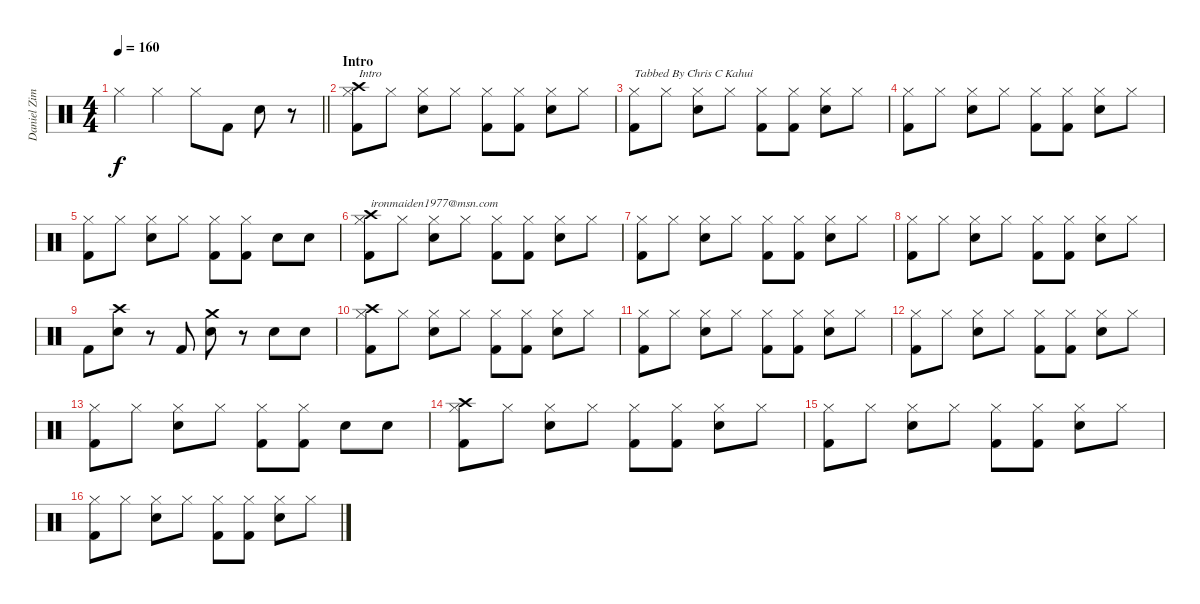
\track ("Daniel Zimmermann" "Daniel Zim") {instrument percussion}
\staff {score}
\articulation defaults
\ts (4 4)
\tempo 160
\clef neutral
\barLineRight lightlight
\ks c "Hi-Hat (closed)".4{dy f} "Hi-Hat (closed)".4 "Hi-Hat (closed)".8 "Kick (hit) 2".8 "Snare (hit) 2".8
r.8 |
\section ("" "Intro")
("Hi-Hat (closed)" "Kick (hit) 2" "Crash high (hit)").8{txt "Intro"} "Hi-Hat (closed)".8 ("Hi-Hat (closed)" "Snare (hit) 2").8 "Hi-Hat (closed)".8 ("Hi-Hat (closed)" "Kick (hit) 2").8 ("Hi-Hat (closed)" "Kick (hit) 2").8 ("Hi-Hat (closed)" "Snare (hit) 2").8 "Hi-Hat (closed)".8 |
("Hi-Hat (closed)" "Kick (hit) 2").8{txt "Tabbed By Chris C Kahui"} "Hi-Hat (closed)".8 ("Hi-Hat (closed)" "Snare (hit) 2").8 "Hi-Hat (closed)".8 ("Hi-Hat (closed)" "Kick (hit) 2").8 ("Hi-Hat (closed)" "Kick (hit) 2").8 ("Hi-Hat (closed)" "Snare (hit) 2").8 "Hi-Hat (closed)".8 |
("Hi-Hat (closed)" "Kick (hit) 2").8 "Hi-Hat (closed)".8 ("Hi-Hat (closed)" "Snare (hit) 2").8 "Hi-Hat (closed)".8 ("Hi-Hat (closed)" "Kick (hit) 2").8 ("Hi-Hat (closed)" "Kick (hit) 2").8 ("Hi-Hat (closed)" "Snare (hit) 2").8 "Hi-Hat (closed)".8 |
("Hi-Hat (closed)" "Kick (hit) 2").8 "Hi-Hat (closed)".8 ("Hi-Hat (closed)" "Snare (hit) 2").8 "Hi-Hat (closed)".8 ("Hi-Hat (closed)" "Kick (hit) 2").8 ("Hi-Hat (closed)" "Kick (hit) 2").8 "Snare (hit) 2".8 "Snare (hit) 2".8 |
("Hi-Hat (closed)" "Kick (hit) 2" "Crash high (hit)").8{txt "ironmaiden1977@msn.com"} "Hi-Hat (closed)".8 ("Hi-Hat (closed)" "Snare (hit) 2").8 "Hi-Hat (closed)".8 ("Hi-Hat (closed)" "Kick (hit) 2").8 ("Hi-Hat (closed)" "Kick (hit) 2").8 ("Hi-Hat (closed)" "Snare (hit) 2").8 "Hi-Hat (closed)".8 |
("Hi-Hat (closed)" "Kick (hit) 2").8 "Hi-Hat (closed)".8 ("Hi-Hat (closed)" "Snare (hit) 2").8 "Hi-Hat (closed)".8 ("Hi-Hat (closed)" "Kick (hit) 2").8 ("Hi-Hat (closed)" "Kick (hit) 2").8 ("Hi-Hat (closed)" "Snare (hit) 2").8 "Hi-Hat (closed)".8 |
("Hi-Hat (closed)" "Kick (hit) 2").8 "Hi-Hat (closed)".8 ("Hi-Hat (closed)" "Snare (hit) 2").8 "Hi-Hat (closed)".8 ("Hi-Hat (closed)" "Kick (hit) 2").8 ("Hi-Hat (closed)" "Kick (hit) 2").8 ("Hi-Hat (closed)" "Snare (hit) 2").8 "Hi-Hat (closed)".8 |
"Kick (hit) 2".8 ("Snare (hit) 2" "Crash high (hit)").8 r.8 "Kick (hit) 2".8 ("Snare (hit) 2" "Crash medium (hit)").8 r.8 "Snare (hit) 2".8 "Snare (hit) 2".8 |
("Hi-Hat (closed)" "Kick (hit) 2" "Crash high (hit)").8 "Hi-Hat (closed)".8 ("Hi-Hat (closed)" "Snare (hit) 2").8 "Hi-Hat (closed)".8 ("Hi-Hat (closed)" "Kick (hit) 2").8 ("Hi-Hat (closed)" "Kick (hit) 2").8 ("Hi-Hat (closed)" "Snare (hit) 2").8 "Hi-Hat (closed)".8 |
("Hi-Hat (closed)" "Kick (hit) 2").8 "Hi-Hat (closed)".8 ("Hi-Hat (closed)" "Snare (hit) 2").8 "Hi-Hat (closed)".8 ("Hi-Hat (closed)" "Kick (hit) 2").8 ("Hi-Hat (closed)" "Kick (hit) 2").8 ("Hi-Hat (closed)" "Snare (hit) 2").8 "Hi-Hat (closed)".8 |
("Hi-Hat (closed)" "Kick (hit) 2").8 "Hi-Hat (closed)".8 ("Hi-Hat (closed)" "Snare (hit) 2").8 "Hi-Hat (closed)".8 ("Hi-Hat (closed)" "Kick (hit) 2").8 ("Hi-Hat (closed)" "Kick (hit) 2").8 ("Hi-Hat (closed)" "Snare (hit) 2").8 "Hi-Hat (closed)".8 |
("Hi-Hat (closed)" "Kick (hit) 2").8 "Hi-Hat (closed)".8 ("Hi-Hat (closed)" "Snare (hit) 2").8 "Hi-Hat (closed)".8 ("Hi-Hat (closed)" "Kick (hit) 2").8 ("Hi-Hat (closed)" "Kick (hit) 2").8 "Snare (hit) 2".8 "Snare (hit) 2".8 |
("Hi-Hat (closed)" "Kick (hit) 2" "Crash high (hit)").8 "Hi-Hat (closed)".8 ("Hi-Hat (closed)" "Snare (hit) 2").8 "Hi-Hat (closed)".8 ("Hi-Hat (closed)" "Kick (hit) 2").8 ("Hi-Hat (closed)" "Kick (hit) 2").8 ("Hi-Hat (closed)" "Snare (hit) 2").8 "Hi-Hat (closed)".8 |
("Hi-Hat (closed)" "Kick (hit) 2").8 "Hi-Hat (closed)".8 ("Hi-Hat (closed)" "Snare (hit) 2").8 "Hi-Hat (closed)".8 ("Hi-Hat (closed)" "Kick (hit) 2").8 ("Hi-Hat (closed)" "Kick (hit) 2").8 ("Hi-Hat (closed)" "Snare (hit) 2").8 "Hi-Hat (closed)".8 |
("Hi-Hat (closed)" "Kick (hit) 2").8 "Hi-Hat (closed)".8 ("Hi-Hat (closed)" "Snare (hit) 2").8 "Hi-Hat (closed)".8 ("Hi-Hat (closed)" "Kick (hit) 2").8 ("Hi-Hat (closed)" "Kick (hit) 2").8 ("Hi-Hat (closed)" "Snare (hit) 2").8 "Hi-Hat (closed)".8
